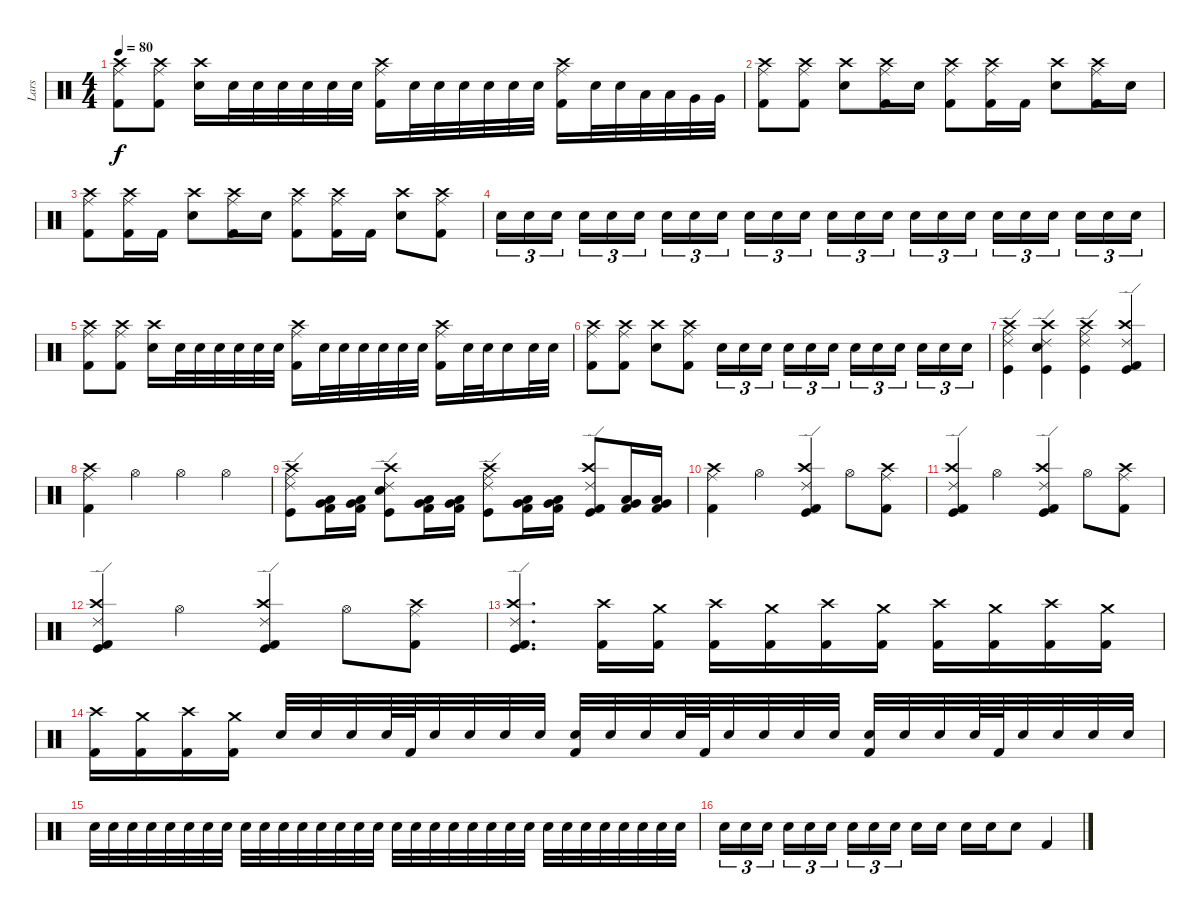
\track ("Lars" "Lars") {instrument percussion}
\staff
\articulation defaults
\ts (4 4)
\tempo 80
\clef neutral
\ks c
("Ride (middle)" "Kick (hit) 2" "Crash high (hit)").8{dy f} ("Ride (middle)" "Kick (hit) 2" "Crash high (hit)").8 ("Snare (hit) 2" "Crash high (hit)").16 "Snare (hit) 2".32 "Snare (hit) 2".32 "Snare (hit) 2".32 "Snare (hit) 2".32 "Snare (hit) 2".32 "Snare (hit) 2".32 ("Ride (middle)" "Kick (hit) 2" "Crash high (hit)").16 "Snare (hit) 2".32 "Snare (hit) 2".32 "Snare (hit) 2".32 "Snare (hit) 2".32 "Snare (hit) 2".32 "Snare (hit) 2".32 ("Ride (middle)" "Kick (hit) 2" "Crash high (hit)").16 "Snare (hit) 2".32 "Snare (hit) 2".32 "Low Tom (hit)".32 "Low Tom (hit)".32 "Very Low Tom (hit)".32 "Very Low Tom (hit)".32 |
("Ride (middle)" "Kick (hit) 2" "Crash high (hit)").8 ("Ride (middle)" "Kick (hit) 2" "Crash high (hit)").8 ("Snare (hit) 2" "Crash high (hit)").8 ("Ride (middle)" "Kick (hit) 2" "Crash high (hit)").16 "Snare (hit) 2".16 ("Ride (middle)" "Kick (hit) 2" "Crash high (hit)").8 ("Ride (middle)" "Kick (hit) 2" "Crash high (hit)").16 "Kick (hit) 2".16 ("Snare (hit) 2" "Crash high (hit)").8 ("Ride (middle)" "Kick (hit) 2" "Crash high (hit)").16 "Snare (hit) 2".16 |
("Ride (middle)" "Kick (hit) 2" "Crash high (hit)").8 ("Ride (middle)" "Kick (hit) 2" "Crash high (hit)").16 "Kick (hit) 2".16 ("Snare (hit) 2" "Crash high (hit)").8 ("Ride (middle)" "Kick (hit) 2" "Crash high (hit)").16 "Snare (hit) 2".16 ("Ride (middle)" "Kick (hit) 2" "Crash high (hit)").8 ("Ride (middle)" "Kick (hit) 2" "Crash high (hit)").16 "Kick (hit) 2".16 ("Snare (hit) 2" "Crash high (hit)").8 ("Ride (middle)" "Kick (hit) 2" "Crash high (hit)").8 |
"Snare (hit) 2".16{tu (3 2)} "Snare (hit) 2".16{tu (3 2)} "Snare (hit) 2".16{tu (3 2) beam splitsecondary} "Snare (hit) 2".16{tu (3 2)} "Snare (hit) 2".16{tu (3 2)} "Snare (hit) 2".16{tu (3 2)} "Snare (hit) 2".16{tu (3 2)} "Snare (hit) 2".16{tu (3 2)} "Snare (hit) 2".16{tu (3 2) beam splitsecondary} "Snare (hit) 2".16{tu (3 2)} "Snare (hit) 2".16{tu (3 2)} "Snare (hit) 2".16{tu (3 2)} "Snare (hit) 2".16{tu (3 2)} "Snare (hit) 2".16{tu (3 2)} "Snare (hit) 2".16{tu (3 2) beam splitsecondary} "Snare (hit) 2".16{tu (3 2)} "Snare (hit) 2".16{tu (3 2)} "Snare (hit) 2".16{tu (3 2)} "Snare (hit) 2".16{tu (3 2)} "Snare (hit) 2".16{tu (3 2)} "Snare (hit) 2".16{tu (3 2) beam splitsecondary} "Snare (hit) 2".16{tu (3 2)} "Snare (hit) 2".16{tu (3 2)} "Snare (hit) 2".16{tu (3 2)} |
("Ride (middle)" "Kick (hit) 2" "Crash high (hit)").8 ("Ride (middle)" "Kick (hit) 2" "Crash high (hit)").8 ("Snare (hit) 2" "Crash high (hit)").16 "Snare (hit) 2".32 "Snare (hit) 2".32 "Snare (hit) 2".32 "Snare (hit) 2".32 "Snare (hit) 2".32 "Snare (hit) 2".32 ("Ride (middle)" "Kick (hit) 2" "Crash high (hit)").16 "Snare (hit) 2".32 "Snare (hit) 2".32 "Snare (hit) 2".32 "Snare (hit) 2".32 "Snare (hit) 2".32 "Snare (hit) 2".32 ("Ride (middle)" "Kick (hit) 2" "Crash high (hit)").16 "Snare (hit) 2".32 "Snare (hit) 2".32 "Snare (hit) 2".16 "Snare (hit) 2".32 "Snare (hit) 2".32 |
("Ride (middle)" "Kick (hit) 2" "Crash high (hit)").8 ("Ride (middle)" "Kick (hit) 2" "Crash high (hit)").8 ("Snare (hit) 2" "Crash high (hit)").8 ("Ride (middle)" "Kick (hit) 2" "Crash high (hit)").8 "Snare (hit) 2".16{tu (3 2)} "Snare (hit) 2".16{tu (3 2)} "Snare (hit) 2".16{tu (3 2) beam splitsecondary} "Snare (hit) 2".16{tu (3 2)} "Snare (hit) 2".16{tu (3 2)} "Snare (hit) 2".16{tu (3 2)} "Snare (hit) 2".16{tu (3 2)} "Snare (hit) 2".16{tu (3 2)} "Snare (hit) 2".16{tu (3 2) beam splitsecondary} "Snare (hit) 2".16{tu (3 2)} "Snare (hit) 2".16{tu (3 2)} "Snare (hit) 2".16{tu (3 2)} |
("Ride (middle)" "Crash high (hit)" "Ride (edge) 2" "Kick (hit)").4 ("Snare (hit) 2" "Crash high (hit)" "Ride (edge) 2" "Kick (hit)").4 ("Ride (middle)" "Crash high (hit)" "Ride (edge) 2" "Kick (hit)").4 ("Kick (hit) 2" "Crash high (hit)" "Ride (edge) 2" "Kick (hit)").4 |
("Ride (middle)" "Kick (hit) 2" "Crash high (hit)").4 "Hi-Hat (open)".4 "Hi-Hat (open)".4 "Hi-Hat (open)".4 |
("Ride (middle)" "Crash high (hit)" "Ride (edge) 2" "Kick (hit)").8 ("Low Floor Tom (hit)" "Very Low Tom (hit)" "Kick (hit) 2").16 ("Low Floor Tom (hit)" "Very Low Tom (hit)" "Kick (hit) 2").16 ("Snare (hit) 2" "Crash high (hit)" "Ride (edge) 2" "Kick (hit)").8 ("Low Floor Tom (hit)" "Very Low Tom (hit)" "Kick (hit) 2").16 ("Low Floor Tom (hit)" "Very Low Tom (hit)" "Kick (hit) 2").16 ("Ride (middle)" "Crash high (hit)" "Ride (edge) 2" "Kick (hit)").8 ("Low Floor Tom (hit)" "Very Low Tom (hit)" "Kick (hit) 2").16 ("Low Floor Tom (hit)" "Very Low Tom (hit)" "Kick (hit) 2").16 ("Kick (hit) 2" "Crash high (hit)" "Ride (edge) 2" "Kick (hit)").8 ("Low Floor Tom (hit)" "Very Low Tom (hit)" "Kick (hit) 2").16 ("Low Floor Tom (hit)" "Very Low Tom (hit)" "Kick (hit) 2").16 |
("Ride (middle)" "Kick (hit) 2" "Crash high (hit)").4 "Hi-Hat (open)".4 ("Kick (hit) 2" "Crash high (hit)" "Ride (edge) 2" "Kick (hit)").4 "Hi-Hat (open)".8 ("Ride (middle)" "Kick (hit) 2" "Crash high (hit)").8 |
("Kick (hit) 2" "Crash high (hit)" "Ride (edge) 2" "Kick (hit)").4 "Hi-Hat (open)".4 ("Kick (hit) 2" "Crash high (hit)" "Ride (edge) 2" "Kick (hit)").4 "Hi-Hat (open)".8 ("Ride (middle)" "Kick (hit) 2" "Crash high (hit)").8 |
("Kick (hit) 2" "Crash high (hit)" "Ride (edge) 2" "Kick (hit)").4 "Hi-Hat (open)".4 ("Kick (hit) 2" "Crash high (hit)" "Ride (edge) 2" "Kick (hit)").4 "Hi-Hat (open)".8 ("Ride (middle)" "Kick (hit) 2" "Crash high (hit)").8 |
("Kick (hit) 2" "Crash high (hit)" "Ride (edge) 2" "Kick (hit)").4{d} ("Crash high (hit)" "Kick (hit) 2").16 ("Crash medium (hit)" "Kick (hit) 2").16 ("Crash high (hit)" "Kick (hit) 2").16 ("Crash medium (hit)" "Kick (hit) 2").16 ("Crash high (hit)" "Kick (hit) 2").16 ("Crash medium (hit)" "Kick (hit) 2").16 ("Crash high (hit)" "Kick (hit) 2").16 ("Crash medium (hit)" "Kick (hit) 2").16 ("Crash high (hit)" "Kick (hit) 2").16 ("Crash medium (hit)" "Kick (hit) 2").16 |
("Crash high (hit)" "Kick (hit) 2").16 ("Crash medium (hit)" "Kick (hit) 2").16 ("Crash high (hit)" "Kick (hit) 2").16 ("Crash medium (hit)" "Kick (hit) 2").16 "Snare (hit) 2".32 "Snare (hit) 2".32 "Snare (hit) 2".32 "Snare (hit) 2".64 "Kick (hit) 2".64 "Snare (hit) 2".32 "Snare (hit) 2".32 "Snare (hit) 2".32 "Snare (hit) 2".32 ("Snare (hit) 2" "Kick (hit) 2").32 "Snare (hit) 2".32 "Snare (hit) 2".32 "Snare (hit) 2".64 "Kick (hit) 2".64 "Snare (hit) 2".32 "Snare (hit) 2".32 "Snare (hit) 2".32 "Snare (hit) 2".32 ("Snare (hit) 2" "Kick (hit) 2").32 "Snare (hit) 2".32 "Snare (hit) 2".32 "Snare (hit) 2".64 "Kick (hit) 2".64 "Snare (hit) 2".32 "Snare (hit) 2".32 "Snare (hit) 2".32 "Snare (hit) 2".32 |
"Snare (hit) 2".32 "Snare (hit) 2".32 "Snare (hit) 2".32 "Snare (hit) 2".32 "Snare (hit) 2".32 "Snare (hit) 2".32 "Snare (hit) 2".32 "Snare (hit) 2".32 "Snare (hit) 2".32 "Snare (hit) 2".32 "Snare (hit) 2".32 "Snare (hit) 2".32 "Snare (hit) 2".32 "Snare (hit) 2".32 "Snare (hit) 2".32 "Snare (hit) 2".32 "Snare (hit) 2".32 "Snare (hit) 2".32 "Snare (hit) 2".32 "Snare (hit) 2".32 "Snare (hit) 2".32 "Snare (hit) 2".32 "Snare (hit) 2".32 "Snare (hit) 2".32 "Snare (hit) 2".32 "Snare (hit) 2".32 "Snare (hit) 2".32 "Snare (hit) 2".32 "Snare (hit) 2".32 "Snare (hit) 2".32 "Snare (hit) 2".32 "Snare (hit) 2".32 |
"Snare (hit) 2".16{tu (3 2)} "Snare (hit) 2".16{tu (3 2)} "Snare (hit) 2".16{tu (3 2) beam splitsecondary} "Snare (hit) 2".16{tu (3 2)} "Snare (hit) 2".16{tu (3 2)} "Snare (hit) 2".16{tu (3 2)} "Snare (hit) 2".16{tu (3 2)} "Snare (hit) 2".16{tu (3 2)} "Snare (hit) 2".16{tu (3 2) beam splitsecondary} "Snare (hit) 2".16 "Snare (hit) 2".16 "Snare (hit) 2".16 "Snare (hit) 2".16 "Snare (hit) 2".8 "Kick (hit) 2".4
